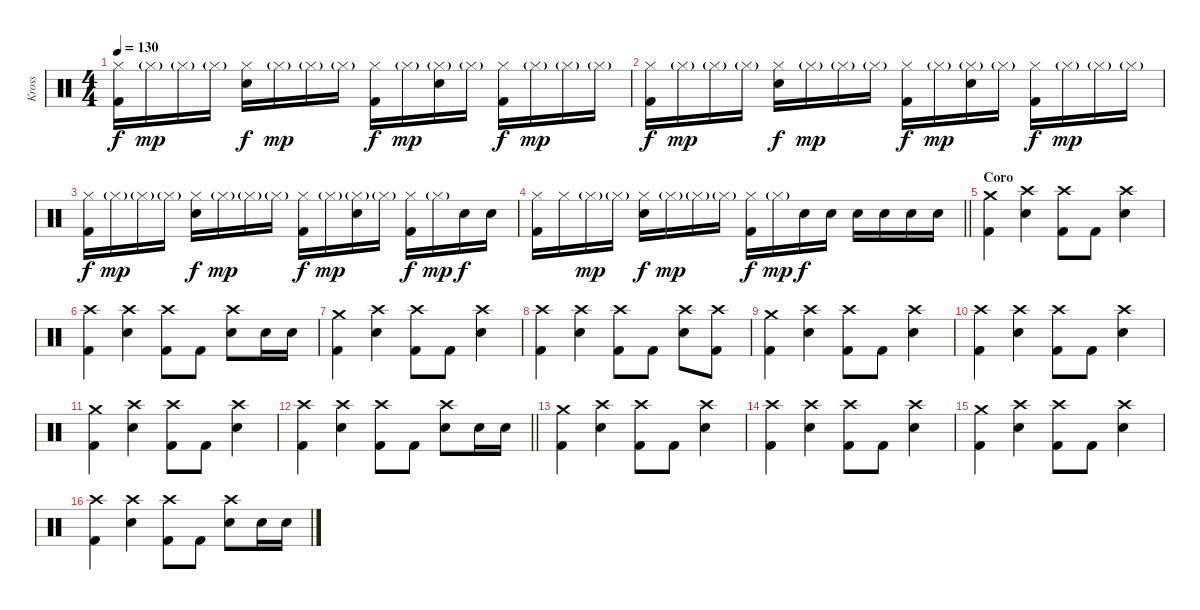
\track ("Kross" "Kross") {instrument percussion}
\staff {score}
\articulation defaults
\ts (4 4)
\tempo 130
\clef neutral
\ks c
("Hi-Hat (closed)" "Kick (hit) 2").16{dy f} "Hi-Hat (closed)"{g}.16{dy mp} "Hi-Hat (closed)"{g}.16 "Hi-Hat (closed)"{g}.16 ("Hi-Hat (closed)" "Electric Snare (hit)").16{dy f} "Hi-Hat (closed)"{g}.16{dy mp} "Hi-Hat (closed)"{g}.16 "Hi-Hat (closed)"{g}.16 ("Hi-Hat (closed)" "Kick (hit) 2").16{dy f} "Hi-Hat (closed)"{g}.16{dy mp} ("Hi-Hat (closed)"{g} "Electric Snare (hit)").16 "Hi-Hat (closed)"{g}.16 ("Hi-Hat (closed)" "Kick (hit) 2").16{dy f} "Hi-Hat (closed)"{g}.16{dy mp} "Hi-Hat (closed)"{g}.16 "Hi-Hat (closed)"{g}.16 |
("Hi-Hat (closed)" "Kick (hit) 2").16{dy f} "Hi-Hat (closed)"{g}.16{dy mp} "Hi-Hat (closed)"{g}.16 "Hi-Hat (closed)"{g}.16 ("Hi-Hat (closed)" "Electric Snare (hit)").16{dy f} "Hi-Hat (closed)"{g}.16{dy mp} "Hi-Hat (closed)"{g}.16 "Hi-Hat (closed)"{g}.16 ("Hi-Hat (closed)" "Kick (hit) 2").16{dy f} "Hi-Hat (closed)"{g}.16{dy mp} ("Hi-Hat (closed)"{g} "Electric Snare (hit)").16 "Hi-Hat (closed)"{g}.16 ("Hi-Hat (closed)" "Kick (hit) 2").16{dy f} "Hi-Hat (closed)"{g}.16{dy mp} "Hi-Hat (closed)"{g}.16 "Hi-Hat (closed)"{g}.16 |
("Hi-Hat (closed)" "Kick (hit) 2").16{dy f} "Hi-Hat (closed)"{g}.16{dy mp} "Hi-Hat (closed)"{g}.16 "Hi-Hat (closed)"{g}.16 ("Hi-Hat (closed)" "Electric Snare (hit)").16{dy f} "Hi-Hat (closed)"{g}.16{dy mp} "Hi-Hat (closed)"{g}.16 "Hi-Hat (closed)"{g}.16 ("Hi-Hat (closed)" "Kick (hit) 2").16{dy f} "Hi-Hat (closed)"{g}.16{dy mp} ("Hi-Hat (closed)"{g} "Electric Snare (hit)").16 "Hi-Hat (closed)"{g}.16 ("Hi-Hat (closed)" "Kick (hit) 2").16{dy f} "Hi-Hat (closed)"{g}.16{dy mp} "Electric Snare (hit)".16{dy f} "Electric Snare (hit)".16 |
\barLineRight lightlight
("Hi-Hat (closed)" "Kick (hit) 2").16 "Hi-Hat (closed)".16 "Hi-Hat (closed)"{g}.16{dy mp} "Hi-Hat (closed)"{g}.16 ("Hi-Hat (closed)" "Electric Snare (hit)").16{dy f} "Hi-Hat (closed)"{g}.16{dy mp} "Hi-Hat (closed)"{g}.16 "Hi-Hat (closed)"{g}.16 ("Hi-Hat (closed)" "Kick (hit) 2").16{dy f} "Hi-Hat (closed)"{g}.16{dy mp} "Electric Snare (hit)".16{dy f} "Electric Snare (hit)".16 "Electric Snare (hit)".16 "Electric Snare (hit)".16 "Electric Snare (hit)".16 "Electric Snare (hit)".16 |
\section ("" "Coro")
("Crash medium (hit)" "Kick (hit) 2").4 ("Crash high (hit)" "Electric Snare (hit)").4 ("Crash high (hit)" "Kick (hit) 2").8 "Kick (hit) 2".8 ("Crash high (hit)" "Electric Snare (hit)").4 |
("Crash high (hit)" "Kick (hit) 2").4 ("Crash high (hit)" "Electric Snare (hit)").4 ("Crash high (hit)" "Kick (hit) 2").8 "Kick (hit) 2".8 ("Crash high (hit)" "Electric Snare (hit)").8 "Electric Snare (hit)".16 "Electric Snare (hit)".16 |
("Crash medium (hit)" "Kick (hit) 2").4 ("Crash high (hit)" "Electric Snare (hit)").4 ("Crash high (hit)" "Kick (hit) 2").8 "Kick (hit) 2".8 ("Crash high (hit)" "Electric Snare (hit)").4 |
("Crash high (hit)" "Kick (hit) 2").4 ("Crash high (hit)" "Electric Snare (hit)").4 ("Crash high (hit)" "Kick (hit) 2").8 "Kick (hit) 2".8 ("Crash high (hit)" "Electric Snare (hit)").8 ("Crash high (hit)" "Kick (hit) 2").8 |
("Crash medium (hit)" "Kick (hit) 2").4 ("Crash high (hit)" "Electric Snare (hit)").4 ("Crash high (hit)" "Kick (hit) 2").8 "Kick (hit) 2".8 ("Crash high (hit)" "Electric Snare (hit)").4 |
("Crash high (hit)" "Kick (hit) 2").4 ("Crash high (hit)" "Electric Snare (hit)").4 ("Crash high (hit)" "Kick (hit) 2").8 "Kick (hit) 2".8 ("Crash high (hit)" "Electric Snare (hit)").4 |
("Crash medium (hit)" "Kick (hit) 2").4 ("Crash high (hit)" "Electric Snare (hit)").4 ("Crash high (hit)" "Kick (hit) 2").8 "Kick (hit) 2".8 ("Crash high (hit)" "Electric Snare (hit)").4 |
\barLineRight lightlight
("Crash high (hit)" "Kick (hit) 2").4 ("Crash high (hit)" "Electric Snare (hit)").4 ("Crash high (hit)" "Kick (hit) 2").8 "Kick (hit) 2".8 ("Crash high (hit)" "Electric Snare (hit)").8 "Electric Snare (hit)".16 "Electric Snare (hit)".16 |
("Crash medium (hit)" "Kick (hit) 2").4 ("Crash high (hit)" "Electric Snare (hit)").4 ("Crash high (hit)" "Kick (hit) 2").8 "Kick (hit) 2".8 ("Crash high (hit)" "Electric Snare (hit)").4 |
("Crash high (hit)" "Kick (hit) 2").4 ("Crash high (hit)" "Electric Snare (hit)").4 ("Crash high (hit)" "Kick (hit) 2").8 "Kick (hit) 2".8 ("Crash high (hit)" "Electric Snare (hit)").4 |
("Crash medium (hit)" "Kick (hit) 2").4 ("Crash high (hit)" "Electric Snare (hit)").4 ("Crash high (hit)" "Kick (hit) 2").8 "Kick (hit) 2".8 ("Crash high (hit)" "Electric Snare (hit)").4 |
("Crash high (hit)" "Kick (hit) 2").4 ("Crash high (hit)" "Electric Snare (hit)").4 ("Crash high (hit)" "Kick (hit) 2").8 "Kick (hit) 2".8 ("Crash high (hit)" "Electric Snare (hit)").8 "Electric Snare (hit)".16 "Electric Snare (hit)".16
